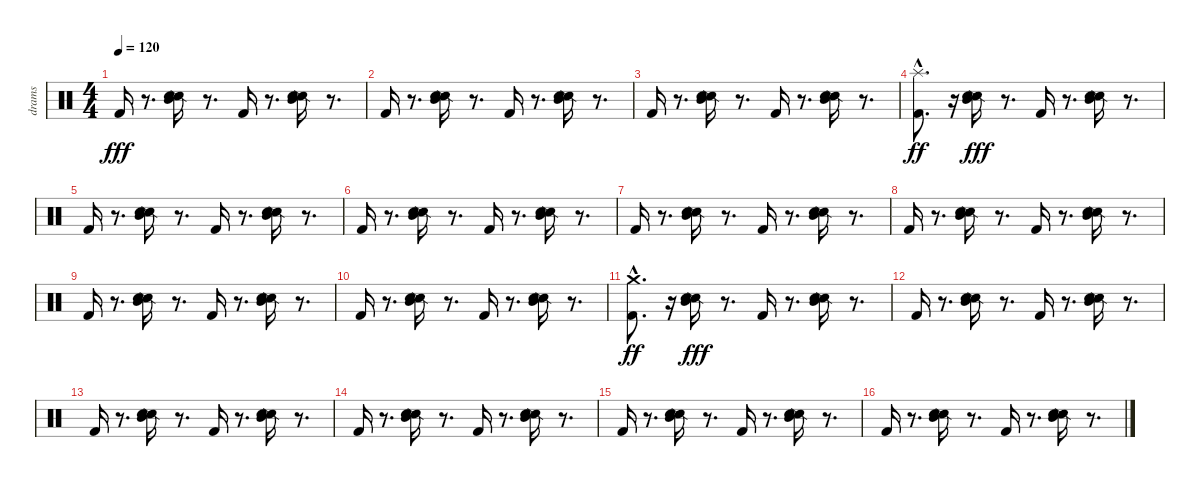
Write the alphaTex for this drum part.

\track ("drams" "drams") {instrument percussion}
\staff {score}
\articulation defaults
\ts (4 4)
\tempo 120
\clef neutral
\ks c "Kick (hit) 2".16{dy fff}
r.8{d} ("Snare (side stick) 2" "Snare (hit) 2" "Mid Tom (hit)").16 r.8{d} "Kick (hit) 2".16 r.8{d} ("Snare (side stick) 2" "Snare (hit) 2" "Mid Tom (hit)").16 r.8{d} |
"Kick (hit) 2".16 r.8{d} ("Snare (side stick) 2" "Snare (hit) 2" "Mid Tom (hit)").16 r.8{d} "Kick (hit) 2".16 r.8{d} ("Snare (side stick) 2" "Snare (hit) 2" "Mid Tom (hit)").16 r.8{d} |
"Kick (hit) 2".16 r.8{d} ("Snare (side stick) 2" "Snare (hit) 2" "Mid Tom (hit)").16 r.8{d} "Kick (hit) 2".16 r.8{d} ("Snare (side stick) 2" "Snare (hit) 2" "Mid Tom (hit)").16 r.8{d} |
("Kick (hit) 2" "Splash (hit)"{hac}).8{d dy ff} r.16 ("Snare (side stick) 2" "Snare (hit) 2" "Mid Tom (hit)").16{dy fff} r.8{d} "Kick (hit) 2".16 r.8{d} ("Snare (side stick) 2" "Snare (hit) 2" "Mid Tom (hit)").16 r.8{d} |
"Kick (hit) 2".16 r.8{d} ("Snare (side stick) 2" "Snare (hit) 2" "Mid Tom (hit)").16 r.8{d} "Kick (hit) 2".16 r.8{d} ("Snare (side stick) 2" "Snare (hit) 2" "Mid Tom (hit)").16 r.8{d} |
"Kick (hit) 2".16 r.8{d} ("Snare (side stick) 2" "Snare (hit) 2" "Mid Tom (hit)").16 r.8{d} "Kick (hit) 2".16 r.8{d} ("Snare (side stick) 2" "Snare (hit) 2" "Mid Tom (hit)").16 r.8{d} |
"Kick (hit) 2".16 r.8{d} ("Snare (side stick) 2" "Snare (hit) 2" "Mid Tom (hit)").16 r.8{d} "Kick (hit) 2".16 r.8{d} ("Snare (side stick) 2" "Snare (hit) 2" "Mid Tom (hit)").16 r.8{d} |
"Kick (hit) 2".16 r.8{d} ("Snare (side stick) 2" "Snare (hit) 2" "Mid Tom (hit)").16 r.8{d} "Kick (hit) 2".16 r.8{d} ("Snare (side stick) 2" "Snare (hit) 2" "Mid Tom (hit)").16 r.8{d} |
"Kick (hit) 2".16 r.8{d} ("Snare (side stick) 2" "Snare (hit) 2" "Mid Tom (hit)").16 r.8{d} "Kick (hit) 2".16 r.8{d} ("Snare (side stick) 2" "Snare (hit) 2" "Mid Tom (hit)").16 r.8{d} |
"Kick (hit) 2".16 r.8{d} ("Snare (side stick) 2" "Snare (hit) 2" "Mid Tom (hit)").16 r.8{d} "Kick (hit) 2".16 r.8{d} ("Snare (side stick) 2" "Snare (hit) 2" "Mid Tom (hit)").16 r.8{d} |
("Kick (hit) 2" "Crash medium (hit)"{hac}).8{d dy ff} r.16 ("Snare (side stick) 2" "Snare (hit) 2" "Mid Tom (hit)").16{dy fff} r.8{d} "Kick (hit) 2".16 r.8{d} ("Snare (side stick) 2" "Snare (hit) 2" "Mid Tom (hit)").16 r.8{d} |
"Kick (hit) 2".16 r.8{d} ("Snare (side stick) 2" "Snare (hit) 2" "Mid Tom (hit)").16 r.8{d} "Kick (hit) 2".16 r.8{d} ("Snare (side stick) 2" "Snare (hit) 2" "Mid Tom (hit)").16 r.8{d} |
"Kick (hit) 2".16 r.8{d} ("Snare (side stick) 2" "Snare (hit) 2" "Mid Tom (hit)").16 r.8{d} "Kick (hit) 2".16 r.8{d} ("Snare (side stick) 2" "Snare (hit) 2" "Mid Tom (hit)").16 r.8{d} |
"Kick (hit) 2".16 r.8{d} ("Snare (side stick) 2" "Snare (hit) 2" "Mid Tom (hit)").16 r.8{d} "Kick (hit) 2".16 r.8{d} ("Snare (side stick) 2" "Snare (hit) 2" "Mid Tom (hit)").16 r.8{d} |
"Kick (hit) 2".16 r.8{d} ("Snare (side stick) 2" "Snare (hit) 2" "Mid Tom (hit)").16 r.8{d} "Kick (hit) 2".16 r.8{d} ("Snare (side stick) 2" "Snare (hit) 2" "Mid Tom (hit)").16 r.8{d} |
"Kick (hit) 2".16 r.8{d} ("Snare (side stick) 2" "Snare (hit) 2" "Mid Tom (hit)").16 r.8{d} "Kick (hit) 2".16 r.8{d} ("Snare (side stick) 2" "Snare (hit) 2" "Mid Tom (hit)").16 r.8{d}
